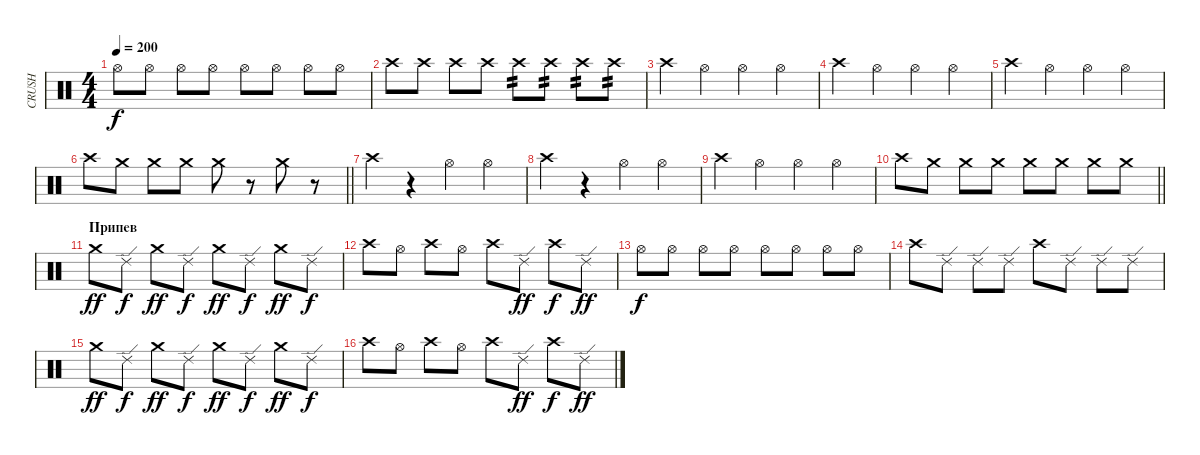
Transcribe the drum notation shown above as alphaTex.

\track ("CRUSH" "CRUSH") {instrument percussion}
\staff {score}
\articulation defaults
\ts (4 4)
\tempo 200
\clef neutral
\ks c "Hi-Hat (open)".8{dy f} "Hi-Hat (open)".8 "Hi-Hat (open)".8 "Hi-Hat (open)".8 "Hi-Hat (open)".8 "Hi-Hat (open)".8 "Hi-Hat (open)".8 "Hi-Hat (open)".8
|
"Crash high (hit)".8 "Crash high (hit)".8 "Crash high (hit)".8 "Crash high (hit)".8 "Crash high (hit)".8{tp 2} "Crash high (hit)".8{tp 2} "Crash high (hit)".8{tp 2} "Crash high (hit)".8{tp 2} |
"Crash high (hit)".4 "Hi-Hat (open)".4 "Hi-Hat (open)".4 "Hi-Hat (open)".4 |
"Crash high (hit)".4 "Hi-Hat (open)".4 "Hi-Hat (open)".4 "Hi-Hat (open)".4 |
"Crash high (hit)".4 "Hi-Hat (open)".4 "Hi-Hat (open)".4 "Hi-Hat (open)".4 |
\barLineRight lightlight "Crash high (hit)".8 "Crash medium (hit)".8 "Crash medium (hit)".8 "Crash medium (hit)".8 "Crash medium (hit)".8
r.8 "Crash medium (hit)".8 r.8 |
"Crash high (hit)".4 r.4 "Hi-Hat (open)".4 "Hi-Hat (open)".4 |
"Crash high (hit)".4 r.4 "Hi-Hat (open)".4 "Hi-Hat (open)".4 |
"Crash high (hit)".4 "Hi-Hat (open)".4 "Hi-Hat (open)".4 "Hi-Hat (open)".4 |
\barLineRight lightlight "Crash high (hit)".8 "Crash medium (hit)".8 "Crash medium (hit)".8 "Crash medium (hit)".8 "Crash medium (hit)".8 "Crash medium (hit)".8 "Crash medium (hit)".8 "Crash medium (hit)".8
|
\section ("" "Припев")
"Crash medium (hit)".8{dy ff} "Ride (edge) 2".8{dy f} "Crash medium (hit)".8{dy ff} "Ride (edge) 2".8{dy f} "Crash medium (hit)".8{dy ff} "Ride (edge) 2".8{dy f} "Crash medium (hit)".8{dy ff} "Ride (edge) 2".8{dy f} |
"Crash high (hit)".8 "Hi-Hat (open)".8 "Crash high (hit)".8 "Hi-Hat (open)".8 "Crash high (hit)".8 "Ride (edge) 2".8{dy ff} "Crash high (hit)".8{dy f} "Ride (edge) 2".8{dy ff} |
"Hi-Hat (open)".8{dy f} "Hi-Hat (open)".8 "Hi-Hat (open)".8 "Hi-Hat (open)".8 "Hi-Hat (open)".8 "Hi-Hat (open)".8 "Hi-Hat (open)".8 "Hi-Hat (open)".8 |
"Crash high (hit)".8 "Ride (edge) 2".8 "Ride (edge) 2".8 "Ride (edge) 2".8 "Crash high (hit)".8 "Ride (edge) 2".8 "Ride (edge) 2".8 "Ride (edge) 2".8 |
"Crash medium (hit)".8{dy ff} "Ride (edge) 2".8{dy f} "Crash medium (hit)".8{dy ff} "Ride (edge) 2".8{dy f} "Crash medium (hit)".8{dy ff} "Ride (edge) 2".8{dy f} "Crash medium (hit)".8{dy ff} "Ride (edge) 2".8{dy f} |
"Crash high (hit)".8 "Hi-Hat (open)".8 "Crash high (hit)".8 "Hi-Hat (open)".8 "Crash high (hit)".8 "Ride (edge) 2".8{dy ff} "Crash high (hit)".8{dy f} "Ride (edge) 2".8{dy ff}
